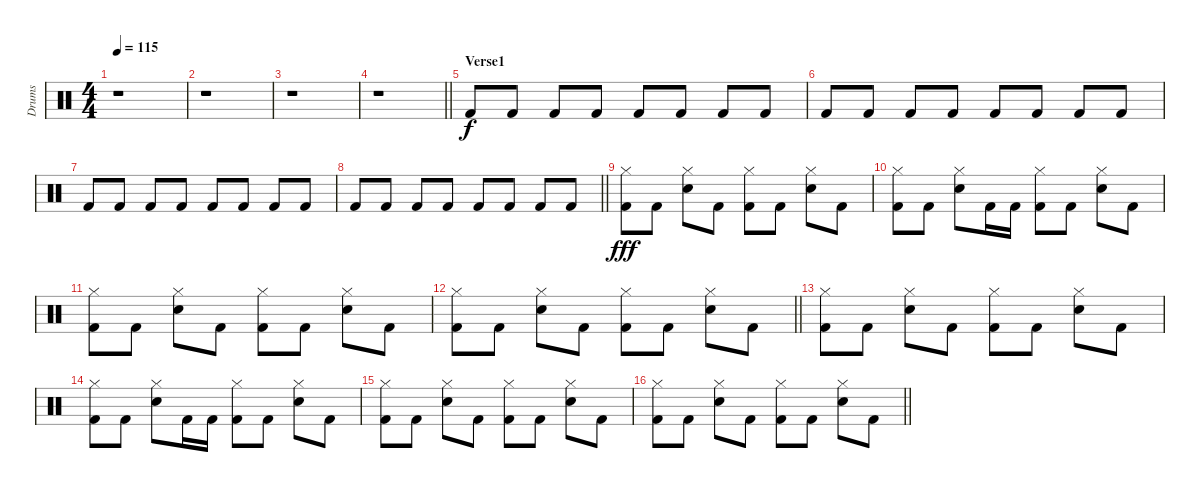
\track ("Drums" "Drums") {instrument percussion}
\staff {score}
\articulation defaults
\ts (4 4)
\tempo 115
\clef neutral
\ks c
r.1{dy f} |
r.1 |
r.1 |
\barLineRight lightlight
r.1 |
\section ("" "Verse1")
"Kick (hit) 2".8 "Kick (hit) 2".8 "Kick (hit) 2".8 "Kick (hit) 2".8 "Kick (hit) 2".8 "Kick (hit) 2".8 "Kick (hit) 2".8 "Kick (hit) 2".8 |
"Kick (hit) 2".8 "Kick (hit) 2".8 "Kick (hit) 2".8 "Kick (hit) 2".8 "Kick (hit) 2".8 "Kick (hit) 2".8 "Kick (hit) 2".8 "Kick (hit) 2".8 |
"Kick (hit) 2".8 "Kick (hit) 2".8 "Kick (hit) 2".8 "Kick (hit) 2".8 "Kick (hit) 2".8 "Kick (hit) 2".8 "Kick (hit) 2".8 "Kick (hit) 2".8 |
\barLineRight lightlight "Kick (hit) 2".8 "Kick (hit) 2".8 "Kick (hit) 2".8 "Kick (hit) 2".8 "Kick (hit) 2".8 "Kick (hit) 2".8 "Kick (hit) 2".8 "Kick (hit) 2".8
|
("Hi-Hat (closed)" "Kick (hit) 2").8{dy fff} "Kick (hit) 2".8 ("Hi-Hat (closed)" "Electric Snare (hit)").8 "Kick (hit) 2".8 ("Hi-Hat (closed)" "Kick (hit) 2").8 "Kick (hit) 2".8 ("Hi-Hat (closed)" "Electric Snare (hit)").8 "Kick (hit) 2".8 |
("Hi-Hat (closed)" "Kick (hit) 2").8 "Kick (hit) 2".8 ("Hi-Hat (closed)" "Electric Snare (hit)").8 "Kick (hit) 2".16 "Kick (hit) 2".16 ("Hi-Hat (closed)" "Kick (hit) 2").8 "Kick (hit) 2".8 ("Hi-Hat (closed)" "Electric Snare (hit)").8 "Kick (hit) 2".8 |
("Hi-Hat (closed)" "Kick (hit) 2").8 "Kick (hit) 2".8 ("Hi-Hat (closed)" "Electric Snare (hit)").8 "Kick (hit) 2".8 ("Hi-Hat (closed)" "Kick (hit) 2").8 "Kick (hit) 2".8 ("Hi-Hat (closed)" "Electric Snare (hit)").8 "Kick (hit) 2".8 |
\barLineRight lightlight
("Hi-Hat (closed)" "Kick (hit) 2").8 "Kick (hit) 2".8 ("Hi-Hat (closed)" "Electric Snare (hit)").8 "Kick (hit) 2".8 ("Hi-Hat (closed)" "Kick (hit) 2").8 "Kick (hit) 2".8 ("Hi-Hat (closed)" "Electric Snare (hit)").8 "Kick (hit) 2".8 |
("Hi-Hat (closed)" "Kick (hit) 2").8 "Kick (hit) 2".8 ("Hi-Hat (closed)" "Electric Snare (hit)").8 "Kick (hit) 2".8 ("Hi-Hat (closed)" "Kick (hit) 2").8 "Kick (hit) 2".8 ("Hi-Hat (closed)" "Electric Snare (hit)").8 "Kick (hit) 2".8 |
("Hi-Hat (closed)" "Kick (hit) 2").8 "Kick (hit) 2".8 ("Hi-Hat (closed)" "Electric Snare (hit)").8 "Kick (hit) 2".16 "Kick (hit) 2".16 ("Hi-Hat (closed)" "Kick (hit) 2").8 "Kick (hit) 2".8 ("Hi-Hat (closed)" "Electric Snare (hit)").8 "Kick (hit) 2".8 |
("Hi-Hat (closed)" "Kick (hit) 2").8 "Kick (hit) 2".8 ("Hi-Hat (closed)" "Electric Snare (hit)").8 "Kick (hit) 2".8 ("Hi-Hat (closed)" "Kick (hit) 2").8 "Kick (hit) 2".8 ("Hi-Hat (closed)" "Electric Snare (hit)").8 "Kick (hit) 2".8 |
\barLineRight lightlight
("Hi-Hat (closed)" "Kick (hit) 2").8 "Kick (hit) 2".8 ("Hi-Hat (closed)" "Electric Snare (hit)").8 "Kick (hit) 2".8 ("Hi-Hat (closed)" "Kick (hit) 2").8 "Kick (hit) 2".8 ("Hi-Hat (closed)" "Electric Snare (hit)").8 "Kick (hit) 2".8
